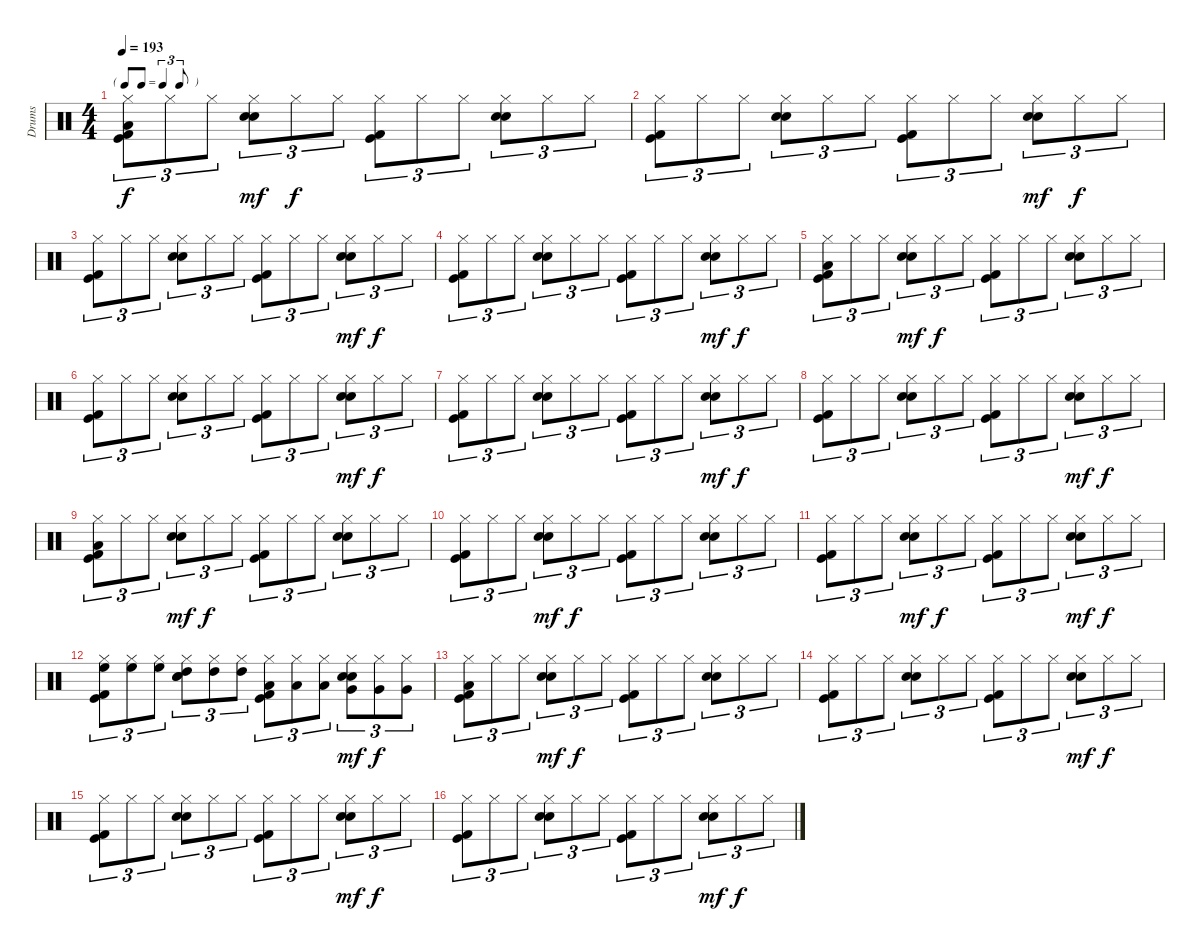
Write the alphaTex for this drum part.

\track ("Drums" "Drums") {instrument percussion}
\staff {score}
\articulation defaults
\ts (4 4)
\tf triplet8th
\tempo 193
\clef neutral
\ks c
("Hi-Hat (closed)" "Kick (hit) 2" "Kick (hit)" "Low Floor Tom (hit)").8{tu (3 2) dy f} "Hi-Hat (closed)".8{tu (3 2)} "Hi-Hat (closed)".8{tu (3 2)} ("Hi-Hat (closed)" "Electric Snare (hit)" "Snare (hit) 2").8{tu (3 2) dy mf} "Hi-Hat (closed)".8{tu (3 2) dy f} "Hi-Hat (closed)".8{tu (3 2)} ("Hi-Hat (closed)" "Kick (hit) 2" "Kick (hit)").8{tu (3 2)} "Hi-Hat (closed)".8{tu (3 2)} "Hi-Hat (closed)".8{tu (3 2)} ("Hi-Hat (closed)" "Snare (hit) 2" "Electric Snare (hit)").8{tu (3 2)} "Hi-Hat (closed)".8{tu (3 2)} "Hi-Hat (closed)".8{tu (3 2)} |
("Hi-Hat (closed)" "Kick (hit) 2" "Kick (hit)").8{tu (3 2)} "Hi-Hat (closed)".8{tu (3 2)} "Hi-Hat (closed)".8{tu (3 2)} ("Hi-Hat (closed)" "Snare (hit) 2" "Electric Snare (hit)").8{tu (3 2)} "Hi-Hat (closed)".8{tu (3 2)} "Hi-Hat (closed)".8{tu (3 2)} ("Hi-Hat (closed)" "Kick (hit)" "Kick (hit) 2").8{tu (3 2)} "Hi-Hat (closed)".8{tu (3 2)} "Hi-Hat (closed)".8{tu (3 2)} ("Hi-Hat (closed)" "Snare (hit) 2" "Electric Snare (hit)").8{tu (3 2) dy mf} "Hi-Hat (closed)".8{tu (3 2) dy f} "Hi-Hat (closed)".8{tu (3 2)} |
("Hi-Hat (closed)" "Kick (hit) 2" "Kick (hit)").8{tu (3 2)} "Hi-Hat (closed)".8{tu (3 2)} "Hi-Hat (closed)".8{tu (3 2)} ("Hi-Hat (closed)" "Snare (hit) 2" "Electric Snare (hit)").8{tu (3 2)} "Hi-Hat (closed)".8{tu (3 2)} "Hi-Hat (closed)".8{tu (3 2)} ("Hi-Hat (closed)" "Kick (hit)" "Kick (hit) 2").8{tu (3 2)} "Hi-Hat (closed)".8{tu (3 2)} "Hi-Hat (closed)".8{tu (3 2)} ("Hi-Hat (closed)" "Snare (hit) 2" "Electric Snare (hit)").8{tu (3 2) dy mf} "Hi-Hat (closed)".8{tu (3 2) dy f} "Hi-Hat (closed)".8{tu (3 2)} |
("Hi-Hat (closed)" "Kick (hit) 2" "Kick (hit)").8{tu (3 2)} "Hi-Hat (closed)".8{tu (3 2)} "Hi-Hat (closed)".8{tu (3 2)} ("Hi-Hat (closed)" "Snare (hit) 2" "Electric Snare (hit)").8{tu (3 2)} "Hi-Hat (closed)".8{tu (3 2)} "Hi-Hat (closed)".8{tu (3 2)} ("Hi-Hat (closed)" "Kick (hit)" "Kick (hit) 2").8{tu (3 2)} "Hi-Hat (closed)".8{tu (3 2)} "Hi-Hat (closed)".8{tu (3 2)} ("Hi-Hat (closed)" "Snare (hit) 2" "Electric Snare (hit)").8{tu (3 2) dy mf} "Hi-Hat (closed)".8{tu (3 2) dy f} "Hi-Hat (closed)".8{tu (3 2)} |
("Hi-Hat (closed)" "Kick (hit) 2" "Kick (hit)" "Low Floor Tom (hit)").8{tu (3 2)} "Hi-Hat (closed)".8{tu (3 2)} "Hi-Hat (closed)".8{tu (3 2)} ("Hi-Hat (closed)" "Electric Snare (hit)" "Snare (hit) 2").8{tu (3 2) dy mf} "Hi-Hat (closed)".8{tu (3 2) dy f} "Hi-Hat (closed)".8{tu (3 2)} ("Hi-Hat (closed)" "Kick (hit) 2" "Kick (hit)").8{tu (3 2)} "Hi-Hat (closed)".8{tu (3 2)} "Hi-Hat (closed)".8{tu (3 2)} ("Hi-Hat (closed)" "Snare (hit) 2" "Electric Snare (hit)").8{tu (3 2)} "Hi-Hat (closed)".8{tu (3 2)} "Hi-Hat (closed)".8{tu (3 2)} |
("Hi-Hat (closed)" "Kick (hit) 2" "Kick (hit)").8{tu (3 2)} "Hi-Hat (closed)".8{tu (3 2)} "Hi-Hat (closed)".8{tu (3 2)} ("Hi-Hat (closed)" "Snare (hit) 2" "Electric Snare (hit)").8{tu (3 2)} "Hi-Hat (closed)".8{tu (3 2)} "Hi-Hat (closed)".8{tu (3 2)} ("Hi-Hat (closed)" "Kick (hit)" "Kick (hit) 2").8{tu (3 2)} "Hi-Hat (closed)".8{tu (3 2)} "Hi-Hat (closed)".8{tu (3 2)} ("Hi-Hat (closed)" "Snare (hit) 2" "Electric Snare (hit)").8{tu (3 2) dy mf} "Hi-Hat (closed)".8{tu (3 2) dy f} "Hi-Hat (closed)".8{tu (3 2)} |
("Hi-Hat (closed)" "Kick (hit) 2" "Kick (hit)").8{tu (3 2)} "Hi-Hat (closed)".8{tu (3 2)} "Hi-Hat (closed)".8{tu (3 2)} ("Hi-Hat (closed)" "Snare (hit) 2" "Electric Snare (hit)").8{tu (3 2)} "Hi-Hat (closed)".8{tu (3 2)} "Hi-Hat (closed)".8{tu (3 2)} ("Hi-Hat (closed)" "Kick (hit)" "Kick (hit) 2").8{tu (3 2)} "Hi-Hat (closed)".8{tu (3 2)} "Hi-Hat (closed)".8{tu (3 2)} ("Hi-Hat (closed)" "Snare (hit) 2" "Electric Snare (hit)").8{tu (3 2) dy mf} "Hi-Hat (closed)".8{tu (3 2) dy f} "Hi-Hat (closed)".8{tu (3 2)} |
("Hi-Hat (closed)" "Kick (hit) 2" "Kick (hit)").8{tu (3 2)} "Hi-Hat (closed)".8{tu (3 2)} "Hi-Hat (closed)".8{tu (3 2)} ("Hi-Hat (closed)" "Snare (hit) 2" "Electric Snare (hit)").8{tu (3 2)} "Hi-Hat (closed)".8{tu (3 2)} "Hi-Hat (closed)".8{tu (3 2)} ("Hi-Hat (closed)" "Kick (hit)" "Kick (hit) 2").8{tu (3 2)} "Hi-Hat (closed)".8{tu (3 2)} "Hi-Hat (closed)".8{tu (3 2)} ("Hi-Hat (closed)" "Snare (hit) 2" "Electric Snare (hit)").8{tu (3 2) dy mf} "Hi-Hat (closed)".8{tu (3 2) dy f} "Hi-Hat (closed)".8{tu (3 2)} |
("Hi-Hat (closed)" "Kick (hit) 2" "Kick (hit)" "Low Floor Tom (hit)").8{tu (3 2)} "Hi-Hat (closed)".8{tu (3 2)} "Hi-Hat (closed)".8{tu (3 2)} ("Hi-Hat (closed)" "Electric Snare (hit)" "Snare (hit) 2").8{tu (3 2) dy mf} "Hi-Hat (closed)".8{tu (3 2) dy f} "Hi-Hat (closed)".8{tu (3 2)} ("Hi-Hat (closed)" "Kick (hit) 2" "Kick (hit)").8{tu (3 2)} "Hi-Hat (closed)".8{tu (3 2)} "Hi-Hat (closed)".8{tu (3 2)} ("Hi-Hat (closed)" "Snare (hit) 2" "Electric Snare (hit)").8{tu (3 2)} "Hi-Hat (closed)".8{tu (3 2)} "Hi-Hat (closed)".8{tu (3 2)} |
("Kick (hit)" "Kick (hit) 2" "Hi-Hat (closed)").8{tu (3 2)} "Hi-Hat (closed)".8{tu (3 2)} "Hi-Hat (closed)".8{tu (3 2)} ("Snare (hit) 2" "Electric Snare (hit)" "Hi-Hat (closed)").8{tu (3 2) dy mf} "Hi-Hat (closed)".8{tu (3 2) dy f} "Hi-Hat (closed)".8{tu (3 2)} ("Kick (hit)" "Kick (hit) 2" "Hi-Hat (closed)").8{tu (3 2)} "Hi-Hat (closed)".8{tu (3 2)} "Hi-Hat (closed)".8{tu (3 2)} ("Snare (hit) 2" "Electric Snare (hit)" "Hi-Hat (closed)").8{tu (3 2)} "Hi-Hat (closed)".8{tu (3 2)} "Hi-Hat (closed)".8{tu (3 2)} |
("Kick (hit) 2" "Kick (hit)" "Hi-Hat (closed)").8{tu (3 2)} "Hi-Hat (closed)".8{tu (3 2)} "Hi-Hat (closed)".8{tu (3 2)} ("Snare (hit) 2" "Electric Snare (hit)" "Hi-Hat (closed)").8{tu (3 2) dy mf} "Hi-Hat (closed)".8{tu (3 2) dy f} "Hi-Hat (closed)".8{tu (3 2)} ("Kick (hit)" "Kick (hit) 2" "Hi-Hat (closed)").8{tu (3 2)} "Hi-Hat (closed)".8{tu (3 2)} "Hi-Hat (closed)".8{tu (3 2)} ("Hi-Hat (closed)" "Electric Snare (hit)" "Snare (hit) 2").8{tu (3 2) dy mf} "Hi-Hat (closed)".8{tu (3 2) dy f} "Hi-Hat (closed)".8{tu (3 2)} |
("High Floor Tom (hit)" "Hi-Hat (closed)" "Kick (hit) 2" "Kick (hit)").8{tu (3 2)} ("High Floor Tom (hit)" "Hi-Hat (closed)").8{tu (3 2)} ("High Floor Tom (hit)" "Hi-Hat (closed)").8{tu (3 2)} ("High Tom (hit)" "Hi-Hat (closed)" "Snare (hit) 2" "Electric Snare (hit)").8{tu (3 2)} ("High Tom (hit)" "Hi-Hat (closed)").8{tu (3 2)} ("High Tom (hit)" "Hi-Hat (closed)").8{tu (3 2)} ("Low Tom (hit)" "Kick (hit)" "Kick (hit) 2" "Hi-Hat (closed)").8{tu (3 2)} ("Low Tom (hit)" "Hi-Hat (closed)").8{tu (3 2)} ("Low Tom (hit)" "Hi-Hat (closed)").8{tu (3 2)} ("Very Low Tom (hit)" "Hi-Hat (closed)" "Snare (hit) 2" "Electric Snare (hit)").8{tu (3 2) dy mf} ("Very Low Tom (hit)" "Hi-Hat (closed)").8{tu (3 2) dy f} ("Very Low Tom (hit)" "Hi-Hat (closed)").8{tu (3 2)} |
("Hi-Hat (closed)" "Kick (hit) 2" "Kick (hit)" "Low Floor Tom (hit)").8{tu (3 2)} "Hi-Hat (closed)".8{tu (3 2)} "Hi-Hat (closed)".8{tu (3 2)} ("Hi-Hat (closed)" "Electric Snare (hit)" "Snare (hit) 2").8{tu (3 2) dy mf} "Hi-Hat (closed)".8{tu (3 2) dy f} "Hi-Hat (closed)".8{tu (3 2)} ("Hi-Hat (closed)" "Kick (hit) 2" "Kick (hit)").8{tu (3 2)} "Hi-Hat (closed)".8{tu (3 2)} "Hi-Hat (closed)".8{tu (3 2)} ("Hi-Hat (closed)" "Snare (hit) 2" "Electric Snare (hit)").8{tu (3 2)} "Hi-Hat (closed)".8{tu (3 2)} "Hi-Hat (closed)".8{tu (3 2)} |
("Hi-Hat (closed)" "Kick (hit) 2" "Kick (hit)").8{tu (3 2)} "Hi-Hat (closed)".8{tu (3 2)} "Hi-Hat (closed)".8{tu (3 2)} ("Hi-Hat (closed)" "Snare (hit) 2" "Electric Snare (hit)").8{tu (3 2)} "Hi-Hat (closed)".8{tu (3 2)} "Hi-Hat (closed)".8{tu (3 2)} ("Hi-Hat (closed)" "Kick (hit)" "Kick (hit) 2").8{tu (3 2)} "Hi-Hat (closed)".8{tu (3 2)} "Hi-Hat (closed)".8{tu (3 2)} ("Hi-Hat (closed)" "Snare (hit) 2" "Electric Snare (hit)").8{tu (3 2) dy mf} "Hi-Hat (closed)".8{tu (3 2) dy f} "Hi-Hat (closed)".8{tu (3 2)} |
("Hi-Hat (closed)" "Kick (hit) 2" "Kick (hit)").8{tu (3 2)} "Hi-Hat (closed)".8{tu (3 2)} "Hi-Hat (closed)".8{tu (3 2)} ("Hi-Hat (closed)" "Snare (hit) 2" "Electric Snare (hit)").8{tu (3 2)} "Hi-Hat (closed)".8{tu (3 2)} "Hi-Hat (closed)".8{tu (3 2)} ("Hi-Hat (closed)" "Kick (hit)" "Kick (hit) 2").8{tu (3 2)} "Hi-Hat (closed)".8{tu (3 2)} "Hi-Hat (closed)".8{tu (3 2)} ("Hi-Hat (closed)" "Snare (hit) 2" "Electric Snare (hit)").8{tu (3 2) dy mf} "Hi-Hat (closed)".8{tu (3 2) dy f} "Hi-Hat (closed)".8{tu (3 2)} |
("Hi-Hat (closed)" "Kick (hit) 2" "Kick (hit)").8{tu (3 2)} "Hi-Hat (closed)".8{tu (3 2)} "Hi-Hat (closed)".8{tu (3 2)} ("Hi-Hat (closed)" "Snare (hit) 2" "Electric Snare (hit)").8{tu (3 2)} "Hi-Hat (closed)".8{tu (3 2)} "Hi-Hat (closed)".8{tu (3 2)} ("Hi-Hat (closed)" "Kick (hit)" "Kick (hit) 2").8{tu (3 2)} "Hi-Hat (closed)".8{tu (3 2)} "Hi-Hat (closed)".8{tu (3 2)} ("Hi-Hat (closed)" "Snare (hit) 2" "Electric Snare (hit)").8{tu (3 2) dy mf} "Hi-Hat (closed)".8{tu (3 2) dy f} "Hi-Hat (closed)".8{tu (3 2)}
